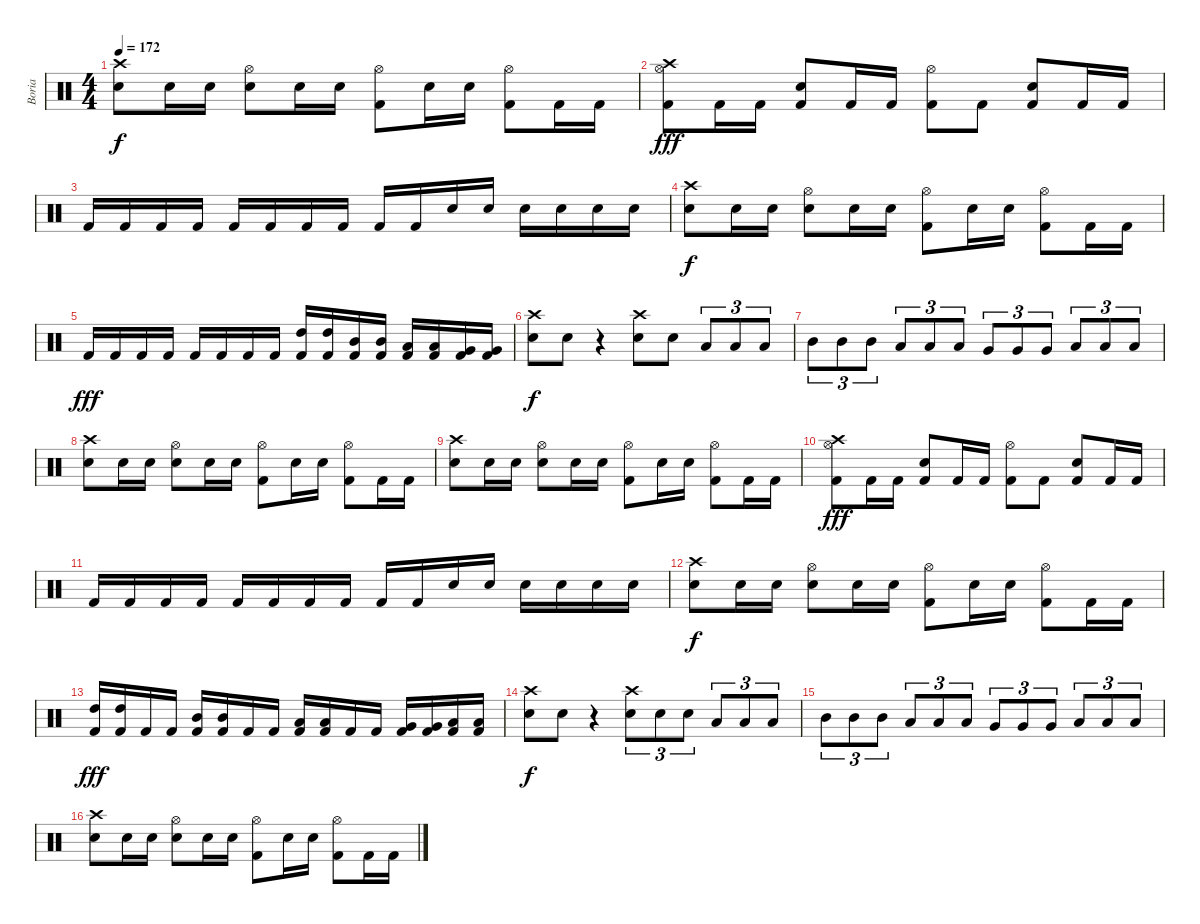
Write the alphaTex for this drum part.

\track ("Boria" "Boria") {instrument percussion}
\staff {score}
\articulation defaults
\ts (4 4)
\tempo 172
\clef neutral
\ks c
("Crash high (hit)" "Snare (hit) 2").8{dy f} "Snare (hit) 2".16 "Snare (hit) 2".16 ("Hi-Hat (open)" "Snare (hit) 2").8 "Snare (hit) 2".16 "Snare (hit) 2".16 ("Hi-Hat (open)" "Kick (hit) 2").8 "Snare (hit) 2".16 "Snare (hit) 2".16 ("Hi-Hat (open)" "Kick (hit) 2").8 "Kick (hit) 2".16 "Kick (hit) 2".16 |
("Crash high (hit)" "Hi-Hat (open)" "Kick (hit) 2").8{dy fff} "Kick (hit) 2".16 "Kick (hit) 2".16 ("Snare (hit) 2" "Kick (hit) 2").8 "Kick (hit) 2".16 "Kick (hit) 2".16 ("Hi-Hat (open)" "Kick (hit) 2").8 "Kick (hit) 2".8 ("Snare (hit) 2" "Kick (hit) 2").8 "Kick (hit) 2".16 "Kick (hit) 2".16 |
"Kick (hit) 2".16 "Kick (hit) 2".16 "Kick (hit) 2".16 "Kick (hit) 2".16 "Kick (hit) 2".16 "Kick (hit) 2".16 "Kick (hit) 2".16 "Kick (hit) 2".16 "Kick (hit) 2".16 "Kick (hit) 2".16 "Snare (hit) 2".16 "Snare (hit) 2".16 "Snare (hit) 2".16 "Snare (hit) 2".16 "Snare (hit) 2".16 "Snare (hit) 2".16 |
("Crash high (hit)" "Snare (hit) 2").8{dy f} "Snare (hit) 2".16 "Snare (hit) 2".16 ("Hi-Hat (open)" "Snare (hit) 2").8 "Snare (hit) 2".16 "Snare (hit) 2".16 ("Hi-Hat (open)" "Kick (hit) 2").8 "Snare (hit) 2".16 "Snare (hit) 2".16 ("Hi-Hat (open)" "Kick (hit) 2").8 "Kick (hit) 2".16 "Kick (hit) 2".16 |
"Kick (hit) 2".16{dy fff} "Kick (hit) 2".16 "Kick (hit) 2".16 "Kick (hit) 2".16 "Kick (hit) 2".16 "Kick (hit) 2".16 "Kick (hit) 2".16 "Kick (hit) 2".16 ("High Tom (hit)" "Kick (hit) 2").16 ("High Tom (hit)" "Kick (hit) 2").16 ("Mid Tom (hit)" "Kick (hit) 2").16 ("Mid Tom (hit)" "Kick (hit) 2").16 ("Low Tom (hit)" "Kick (hit) 2").16 ("Low Tom (hit)" "Kick (hit) 2").16 ("Very Low Tom (hit)" "Kick (hit) 2").16 ("Very Low Tom (hit)" "Kick (hit) 2").16 |
("Crash high (hit)" "Snare (hit) 2").8{dy f} "Snare (hit) 2".8 r.4 ("Crash high (hit)" "Snare (hit) 2").8 "Snare (hit) 2".8 "Low Tom (hit)".8{tu (3 2)} "Low Tom (hit)".8{tu (3 2)} "Low Tom (hit)".8{tu (3 2)} |
"Mid Tom (hit)".8{tu (3 2)} "Mid Tom (hit)".8{tu (3 2)} "Mid Tom (hit)".8{tu (3 2)} "Low Tom (hit)".8{tu (3 2)} "Low Tom (hit)".8{tu (3 2)} "Low Tom (hit)".8{tu (3 2)} "Very Low Tom (hit)".8{tu (3 2)} "Very Low Tom (hit)".8{tu (3 2)} "Very Low Tom (hit)".8{tu (3 2)} "Low Floor Tom (hit)".8{tu (3 2)} "Low Floor Tom (hit)".8{tu (3 2)} "Low Floor Tom (hit)".8{tu (3 2)} |
("Crash high (hit)" "Snare (hit) 2").8 "Snare (hit) 2".16 "Snare (hit) 2".16 ("Hi-Hat (open)" "Snare (hit) 2").8 "Snare (hit) 2".16 "Snare (hit) 2".16 ("Hi-Hat (open)" "Kick (hit) 2").8 "Snare (hit) 2".16 "Snare (hit) 2".16 ("Hi-Hat (open)" "Kick (hit) 2").8 "Kick (hit) 2".16 "Kick (hit) 2".16 |
("Crash high (hit)" "Snare (hit) 2").8 "Snare (hit) 2".16 "Snare (hit) 2".16 ("Hi-Hat (open)" "Snare (hit) 2").8 "Snare (hit) 2".16 "Snare (hit) 2".16 ("Hi-Hat (open)" "Kick (hit) 2").8 "Snare (hit) 2".16 "Snare (hit) 2".16 ("Hi-Hat (open)" "Kick (hit) 2").8 "Kick (hit) 2".16 "Kick (hit) 2".16 |
("Crash high (hit)" "Hi-Hat (open)" "Kick (hit) 2").8{dy fff} "Kick (hit) 2".16 "Kick (hit) 2".16 ("Snare (hit) 2" "Kick (hit) 2").8 "Kick (hit) 2".16 "Kick (hit) 2".16 ("Hi-Hat (open)" "Kick (hit) 2").8 "Kick (hit) 2".8 ("Snare (hit) 2" "Kick (hit) 2").8 "Kick (hit) 2".16 "Kick (hit) 2".16 |
"Kick (hit) 2".16 "Kick (hit) 2".16 "Kick (hit) 2".16 "Kick (hit) 2".16 "Kick (hit) 2".16 "Kick (hit) 2".16 "Kick (hit) 2".16 "Kick (hit) 2".16 "Kick (hit) 2".16 "Kick (hit) 2".16 "Snare (hit) 2".16 "Snare (hit) 2".16 "Snare (hit) 2".16 "Snare (hit) 2".16 "Snare (hit) 2".16 "Snare (hit) 2".16 |
("Crash high (hit)" "Snare (hit) 2").8{dy f} "Snare (hit) 2".16 "Snare (hit) 2".16 ("Hi-Hat (open)" "Snare (hit) 2").8 "Snare (hit) 2".16 "Snare (hit) 2".16 ("Hi-Hat (open)" "Kick (hit) 2").8 "Snare (hit) 2".16 "Snare (hit) 2".16 ("Hi-Hat (open)" "Kick (hit) 2").8 "Kick (hit) 2".16 "Kick (hit) 2".16 |
("High Tom (hit)" "Kick (hit) 2").16{dy fff} ("High Tom (hit)" "Kick (hit) 2").16 "Kick (hit) 2".16 "Kick (hit) 2".16 ("Mid Tom (hit)" "Kick (hit) 2").16 ("Mid Tom (hit)" "Kick (hit) 2").16 "Kick (hit) 2".16 "Kick (hit) 2".16 ("Low Tom (hit)" "Kick (hit) 2").16 ("Low Tom (hit)" "Kick (hit) 2").16 "Kick (hit) 2".16 "Kick (hit) 2".16 ("Very Low Tom (hit)" "Kick (hit) 2").16 ("Very Low Tom (hit)" "Kick (hit) 2").16 ("Low Floor Tom (hit)" "Kick (hit) 2").16 ("Low Floor Tom (hit)" "Kick (hit) 2").16 |
("Crash high (hit)" "Snare (hit) 2").8{dy f} "Snare (hit) 2".8 r.4 ("Crash high (hit)" "Electric Snare (hit)").8{tu (3 2)} "Snare (hit) 2".8{tu (3 2)} "Electric Snare (hit)".8{tu (3 2)} "Low Tom (hit)".8{tu (3 2)} "Low Tom (hit)".8{tu (3 2)} "Low Tom (hit)".8{tu (3 2)} |
"Mid Tom (hit)".8{tu (3 2)} "Mid Tom (hit)".8{tu (3 2)} "Mid Tom (hit)".8{tu (3 2)} "Low Tom (hit)".8{tu (3 2)} "Low Tom (hit)".8{tu (3 2)} "Low Tom (hit)".8{tu (3 2)} "Very Low Tom (hit)".8{tu (3 2)} "Very Low Tom (hit)".8{tu (3 2)} "Very Low Tom (hit)".8{tu (3 2)} "Low Floor Tom (hit)".8{tu (3 2)} "Low Floor Tom (hit)".8{tu (3 2)} "Low Floor Tom (hit)".8{tu (3 2)} |
("Crash high (hit)" "Snare (hit) 2").8 "Snare (hit) 2".16 "Snare (hit) 2".16 ("Hi-Hat (open)" "Snare (hit) 2").8 "Snare (hit) 2".16 "Snare (hit) 2".16 ("Hi-Hat (open)" "Kick (hit) 2").8 "Snare (hit) 2".16 "Snare (hit) 2".16 ("Hi-Hat (open)" "Kick (hit) 2").8 "Kick (hit) 2".16 "Kick (hit) 2".16
